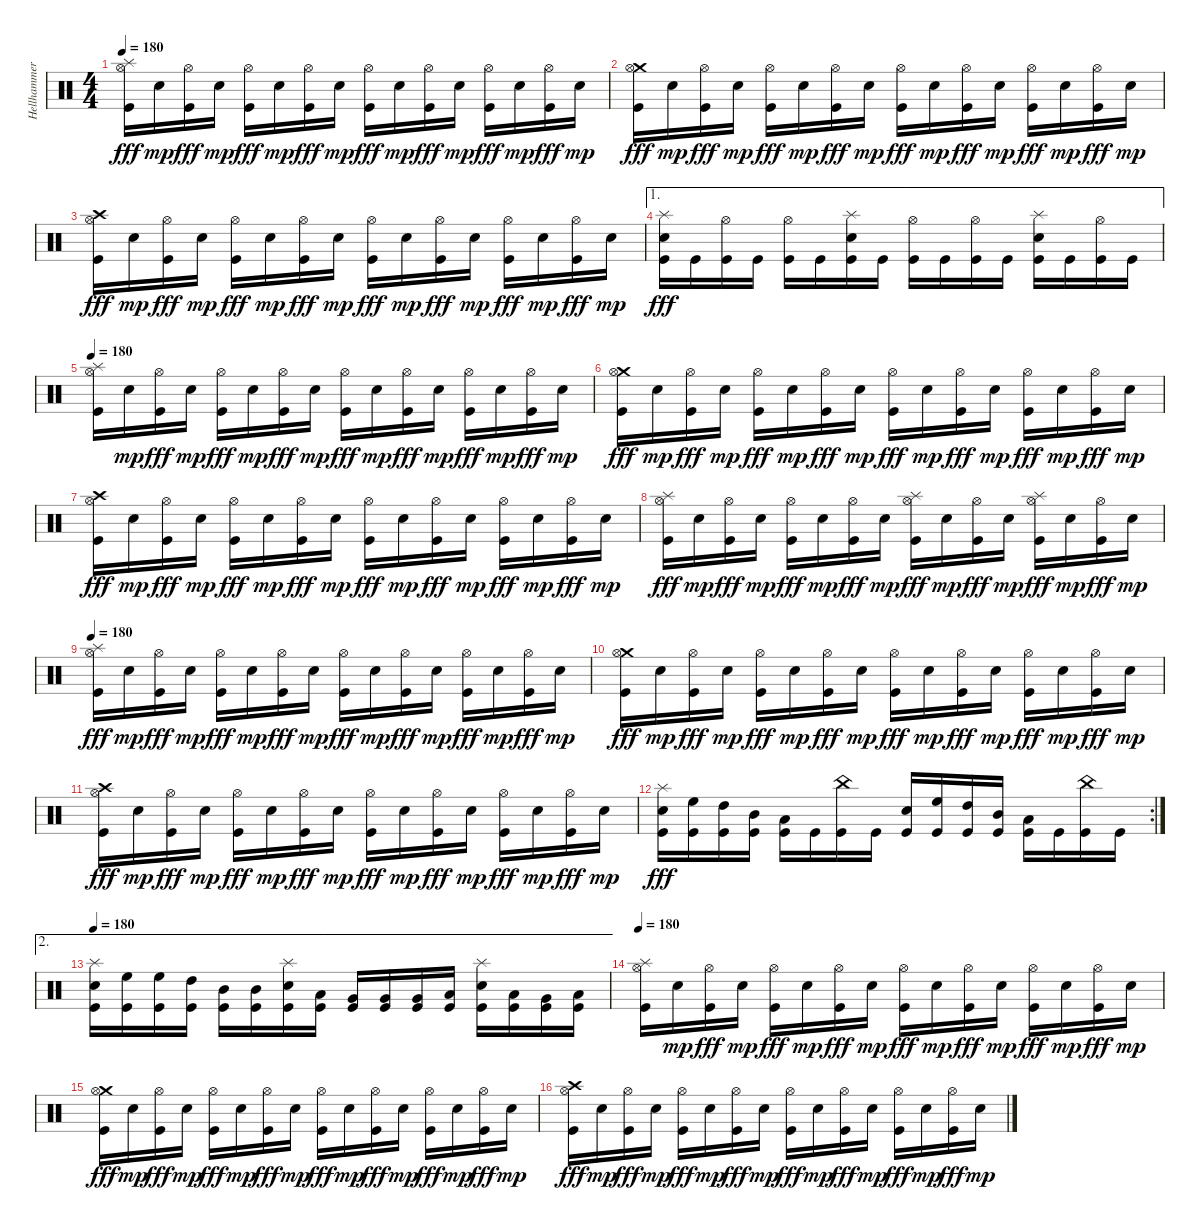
\track ("Hellhammer" "Hellhammer") {instrument percussion}
\staff {score}
\articulation defaults
\ts (4 4)
\tempo 180
\clef neutral
\ks c
("Splash (hit)" "Hi-Hat (open)" "Kick (hit)").16{dy fff} "Electric Snare (hit)".16{dy mp} ("Hi-Hat (open)" "Kick (hit)").16{dy fff} "Electric Snare (hit)".16{dy mp} ("Hi-Hat (open)" "Kick (hit)").16{dy fff} "Electric Snare (hit)".16{dy mp} ("Hi-Hat (open)" "Kick (hit)").16{dy fff} "Electric Snare (hit)".16{dy mp} ("Hi-Hat (open)" "Kick (hit)").16{dy fff} "Electric Snare (hit)".16{dy mp} ("Hi-Hat (open)" "Kick (hit)").16{dy fff} "Electric Snare (hit)".16{dy mp} ("Hi-Hat (open)" "Kick (hit)").16{dy fff} "Electric Snare (hit)".16{dy mp} ("Hi-Hat (open)" "Kick (hit)").16{dy fff} "Electric Snare (hit)".16{dy mp} |
("Crash medium (hit)" "Hi-Hat (open)" "Kick (hit)").16{dy fff} "Electric Snare (hit)".16{dy mp} ("Hi-Hat (open)" "Kick (hit)").16{dy fff} "Electric Snare (hit)".16{dy mp} ("Hi-Hat (open)" "Kick (hit)").16{dy fff} "Electric Snare (hit)".16{dy mp} ("Hi-Hat (open)" "Kick (hit)").16{dy fff} "Electric Snare (hit)".16{dy mp} ("Hi-Hat (open)" "Kick (hit)").16{dy fff} "Electric Snare (hit)".16{dy mp} ("Hi-Hat (open)" "Kick (hit)").16{dy fff} "Electric Snare (hit)".16{dy mp} ("Hi-Hat (open)" "Kick (hit)").16{dy fff} "Electric Snare (hit)".16{dy mp} ("Hi-Hat (open)" "Kick (hit)").16{dy fff} "Electric Snare (hit)".16{dy mp} |
("Crash high (hit)" "Hi-Hat (open)" "Kick (hit)").16{dy fff} "Electric Snare (hit)".16{dy mp} ("Hi-Hat (open)" "Kick (hit)").16{dy fff} "Electric Snare (hit)".16{dy mp} ("Hi-Hat (open)" "Kick (hit)").16{dy fff} "Electric Snare (hit)".16{dy mp} ("Hi-Hat (open)" "Kick (hit)").16{dy fff} "Electric Snare (hit)".16{dy mp} ("Hi-Hat (open)" "Kick (hit)").16{dy fff} "Electric Snare (hit)".16{dy mp} ("Hi-Hat (open)" "Kick (hit)").16{dy fff} "Electric Snare (hit)".16{dy mp} ("Hi-Hat (open)" "Kick (hit)").16{dy fff} "Electric Snare (hit)".16{dy mp} ("Hi-Hat (open)" "Kick (hit)").16{dy fff} "Electric Snare (hit)".16{dy mp} |
\ae 1
("Splash (hit)" "Electric Snare (hit)" "Kick (hit)").16{dy fff} "Kick (hit)".16 ("Hi-Hat (open)" "Kick (hit)").16 "Kick (hit)".16 ("Hi-Hat (open)" "Kick (hit)").16 "Kick (hit)".16 ("Splash (hit)" "Electric Snare (hit)" "Kick (hit)").16 "Kick (hit)".16 ("Hi-Hat (open)" "Kick (hit)").16 "Kick (hit)".16 ("Hi-Hat (open)" "Kick (hit)").16 "Kick (hit)".16 ("Splash (hit)" "Electric Snare (hit)" "Kick (hit)").16 "Kick (hit)".16 ("Hi-Hat (open)" "Kick (hit)").16 "Kick (hit)".16 |
\tempo 180
("Splash (hit)" "Hi-Hat (open)" "Kick (hit)").16 "Electric Snare (hit)".16{dy mp} ("Hi-Hat (open)" "Kick (hit)").16{dy fff} "Electric Snare (hit)".16{dy mp} ("Hi-Hat (open)" "Kick (hit)").16{dy fff} "Electric Snare (hit)".16{dy mp} ("Hi-Hat (open)" "Kick (hit)").16{dy fff} "Electric Snare (hit)".16{dy mp} ("Hi-Hat (open)" "Kick (hit)").16{dy fff} "Electric Snare (hit)".16{dy mp} ("Hi-Hat (open)" "Kick (hit)").16{dy fff} "Electric Snare (hit)".16{dy mp} ("Hi-Hat (open)" "Kick (hit)").16{dy fff} "Electric Snare (hit)".16{dy mp} ("Hi-Hat (open)" "Kick (hit)").16{dy fff} "Electric Snare (hit)".16{dy mp} |
("Crash medium (hit)" "Hi-Hat (open)" "Kick (hit)").16{dy fff} "Electric Snare (hit)".16{dy mp} ("Hi-Hat (open)" "Kick (hit)").16{dy fff} "Electric Snare (hit)".16{dy mp} ("Hi-Hat (open)" "Kick (hit)").16{dy fff} "Electric Snare (hit)".16{dy mp} ("Hi-Hat (open)" "Kick (hit)").16{dy fff} "Electric Snare (hit)".16{dy mp} ("Hi-Hat (open)" "Kick (hit)").16{dy fff} "Electric Snare (hit)".16{dy mp} ("Hi-Hat (open)" "Kick (hit)").16{dy fff} "Electric Snare (hit)".16{dy mp} ("Hi-Hat (open)" "Kick (hit)").16{dy fff} "Electric Snare (hit)".16{dy mp} ("Hi-Hat (open)" "Kick (hit)").16{dy fff} "Electric Snare (hit)".16{dy mp} |
("Crash high (hit)" "Hi-Hat (open)" "Kick (hit)").16{dy fff} "Electric Snare (hit)".16{dy mp} ("Hi-Hat (open)" "Kick (hit)").16{dy fff} "Electric Snare (hit)".16{dy mp} ("Hi-Hat (open)" "Kick (hit)").16{dy fff} "Electric Snare (hit)".16{dy mp} ("Hi-Hat (open)" "Kick (hit)").16{dy fff} "Electric Snare (hit)".16{dy mp} ("Hi-Hat (open)" "Kick (hit)").16{dy fff} "Electric Snare (hit)".16{dy mp} ("Hi-Hat (open)" "Kick (hit)").16{dy fff} "Electric Snare (hit)".16{dy mp} ("Hi-Hat (open)" "Kick (hit)").16{dy fff} "Electric Snare (hit)".16{dy mp} ("Hi-Hat (open)" "Kick (hit)").16{dy fff} "Electric Snare (hit)".16{dy mp} |
("Splash (hit)" "Hi-Hat (open)" "Kick (hit)").16{dy fff} "Electric Snare (hit)".16{dy mp} ("Hi-Hat (open)" "Kick (hit)").16{dy fff} "Electric Snare (hit)".16{dy mp} ("Hi-Hat (open)" "Kick (hit)").16{dy fff} "Electric Snare (hit)".16{dy mp} ("Hi-Hat (open)" "Kick (hit)").16{dy fff} "Electric Snare (hit)".16{dy mp} ("Splash (hit)" "Hi-Hat (open)" "Kick (hit)").16{dy fff} "Electric Snare (hit)".16{dy mp} ("Hi-Hat (open)" "Kick (hit)").16{dy fff} "Electric Snare (hit)".16{dy mp} ("Splash (hit)" "Hi-Hat (open)" "Kick (hit)").16{dy fff} "Electric Snare (hit)".16{dy mp} ("Hi-Hat (open)" "Kick (hit)").16{dy fff} "Electric Snare (hit)".16{dy mp} |
\tempo 180
("Splash (hit)" "Hi-Hat (open)" "Kick (hit)").16{dy fff} "Electric Snare (hit)".16{dy mp} ("Hi-Hat (open)" "Kick (hit)").16{dy fff} "Electric Snare (hit)".16{dy mp} ("Hi-Hat (open)" "Kick (hit)").16{dy fff} "Electric Snare (hit)".16{dy mp} ("Hi-Hat (open)" "Kick (hit)").16{dy fff} "Electric Snare (hit)".16{dy mp} ("Hi-Hat (open)" "Kick (hit)").16{dy fff} "Electric Snare (hit)".16{dy mp} ("Hi-Hat (open)" "Kick (hit)").16{dy fff} "Electric Snare (hit)".16{dy mp} ("Hi-Hat (open)" "Kick (hit)").16{dy fff} "Electric Snare (hit)".16{dy mp} ("Hi-Hat (open)" "Kick (hit)").16{dy fff} "Electric Snare (hit)".16{dy mp} |
("Crash medium (hit)" "Hi-Hat (open)" "Kick (hit)").16{dy fff} "Electric Snare (hit)".16{dy mp} ("Hi-Hat (open)" "Kick (hit)").16{dy fff} "Electric Snare (hit)".16{dy mp} ("Hi-Hat (open)" "Kick (hit)").16{dy fff} "Electric Snare (hit)".16{dy mp} ("Hi-Hat (open)" "Kick (hit)").16{dy fff} "Electric Snare (hit)".16{dy mp} ("Hi-Hat (open)" "Kick (hit)").16{dy fff} "Electric Snare (hit)".16{dy mp} ("Hi-Hat (open)" "Kick (hit)").16{dy fff} "Electric Snare (hit)".16{dy mp} ("Hi-Hat (open)" "Kick (hit)").16{dy fff} "Electric Snare (hit)".16{dy mp} ("Hi-Hat (open)" "Kick (hit)").16{dy fff} "Electric Snare (hit)".16{dy mp} |
("Crash high (hit)" "Hi-Hat (open)" "Kick (hit)").16{dy fff} "Electric Snare (hit)".16{dy mp} ("Hi-Hat (open)" "Kick (hit)").16{dy fff} "Electric Snare (hit)".16{dy mp} ("Hi-Hat (open)" "Kick (hit)").16{dy fff} "Electric Snare (hit)".16{dy mp} ("Hi-Hat (open)" "Kick (hit)").16{dy fff} "Electric Snare (hit)".16{dy mp} ("Hi-Hat (open)" "Kick (hit)").16{dy fff} "Electric Snare (hit)".16{dy mp} ("Hi-Hat (open)" "Kick (hit)").16{dy fff} "Electric Snare (hit)".16{dy mp} ("Hi-Hat (open)" "Kick (hit)").16{dy fff} "Electric Snare (hit)".16{dy mp} ("Hi-Hat (open)" "Kick (hit)").16{dy fff} "Electric Snare (hit)".16{dy mp} |
\rc 2
("Splash (hit)" "Electric Snare (hit)" "Kick (hit)").16{dy fff} ("High Floor Tom (hit)" "Kick (hit)").16 ("High Tom (hit)" "Kick (hit)").16 ("Mid Tom (hit)" "Kick (hit)").16 ("Low Tom (hit)" "Kick (hit)").16 "Kick (hit)".16 ("China (hit)" "Kick (hit)").16 "Kick (hit)".16 ("Electric Snare (hit)" "Kick (hit)").16 ("High Floor Tom (hit)" "Kick (hit)").16 ("High Tom (hit)" "Kick (hit)").16 ("Mid Tom (hit)" "Kick (hit)").16 ("Low Tom (hit)" "Kick (hit)").16 "Kick (hit)".16 ("China (hit)" "Kick (hit)").16 "Kick (hit)".16 |
\ae 2
\tempo 180
("Splash (hit)" "Electric Snare (hit)" "Kick (hit)").16 ("High Floor Tom (hit)" "Kick (hit)").16 ("High Floor Tom (hit)" "Kick (hit)").16 ("High Tom (hit)" "Kick (hit)").16 ("Mid Tom (hit)" "Kick (hit)").16 ("Mid Tom (hit)" "Kick (hit)").16 ("Splash (hit)" "Electric Snare (hit)" "Kick (hit)").16 ("Low Tom (hit)" "Kick (hit)").16 ("Very Low Tom (hit)" "Kick (hit)").16 ("Very Low Tom (hit)" "Kick (hit)").16 ("Very Low Tom (hit)" "Kick (hit)").16 ("Low Floor Tom (hit)" "Kick (hit)").16 ("Splash (hit)" "Electric Snare (hit)" "Kick (hit)").16 ("Low Tom (hit)" "Kick (hit)").16 ("Very Low Tom (hit)" "Kick (hit)").16 ("Low Floor Tom (hit)" "Kick (hit)").16 |
\tempo 180
("Splash (hit)" "Hi-Hat (open)" "Kick (hit)").16 "Electric Snare (hit)".16{dy mp} ("Hi-Hat (open)" "Kick (hit)").16{dy fff} "Electric Snare (hit)".16{dy mp} ("Hi-Hat (open)" "Kick (hit)").16{dy fff} "Electric Snare (hit)".16{dy mp} ("Hi-Hat (open)" "Kick (hit)").16{dy fff} "Electric Snare (hit)".16{dy mp} ("Hi-Hat (open)" "Kick (hit)").16{dy fff} "Electric Snare (hit)".16{dy mp} ("Hi-Hat (open)" "Kick (hit)").16{dy fff} "Electric Snare (hit)".16{dy mp} ("Hi-Hat (open)" "Kick (hit)").16{dy fff} "Electric Snare (hit)".16{dy mp} ("Hi-Hat (open)" "Kick (hit)").16{dy fff} "Electric Snare (hit)".16{dy mp} |
("Crash medium (hit)" "Hi-Hat (open)" "Kick (hit)").16{dy fff} "Electric Snare (hit)".16{dy mp} ("Hi-Hat (open)" "Kick (hit)").16{dy fff} "Electric Snare (hit)".16{dy mp} ("Hi-Hat (open)" "Kick (hit)").16{dy fff} "Electric Snare (hit)".16{dy mp} ("Hi-Hat (open)" "Kick (hit)").16{dy fff} "Electric Snare (hit)".16{dy mp} ("Hi-Hat (open)" "Kick (hit)").16{dy fff} "Electric Snare (hit)".16{dy mp} ("Hi-Hat (open)" "Kick (hit)").16{dy fff} "Electric Snare (hit)".16{dy mp} ("Hi-Hat (open)" "Kick (hit)").16{dy fff} "Electric Snare (hit)".16{dy mp} ("Hi-Hat (open)" "Kick (hit)").16{dy fff} "Electric Snare (hit)".16{dy mp} |
("Crash high (hit)" "Hi-Hat (open)" "Kick (hit)").16{dy fff} "Electric Snare (hit)".16{dy mp} ("Hi-Hat (open)" "Kick (hit)").16{dy fff} "Electric Snare (hit)".16{dy mp} ("Hi-Hat (open)" "Kick (hit)").16{dy fff} "Electric Snare (hit)".16{dy mp} ("Hi-Hat (open)" "Kick (hit)").16{dy fff} "Electric Snare (hit)".16{dy mp} ("Hi-Hat (open)" "Kick (hit)").16{dy fff} "Electric Snare (hit)".16{dy mp} ("Hi-Hat (open)" "Kick (hit)").16{dy fff} "Electric Snare (hit)".16{dy mp} ("Hi-Hat (open)" "Kick (hit)").16{dy fff} "Electric Snare (hit)".16{dy mp} ("Hi-Hat (open)" "Kick (hit)").16{dy fff} "Electric Snare (hit)".16{dy mp}
